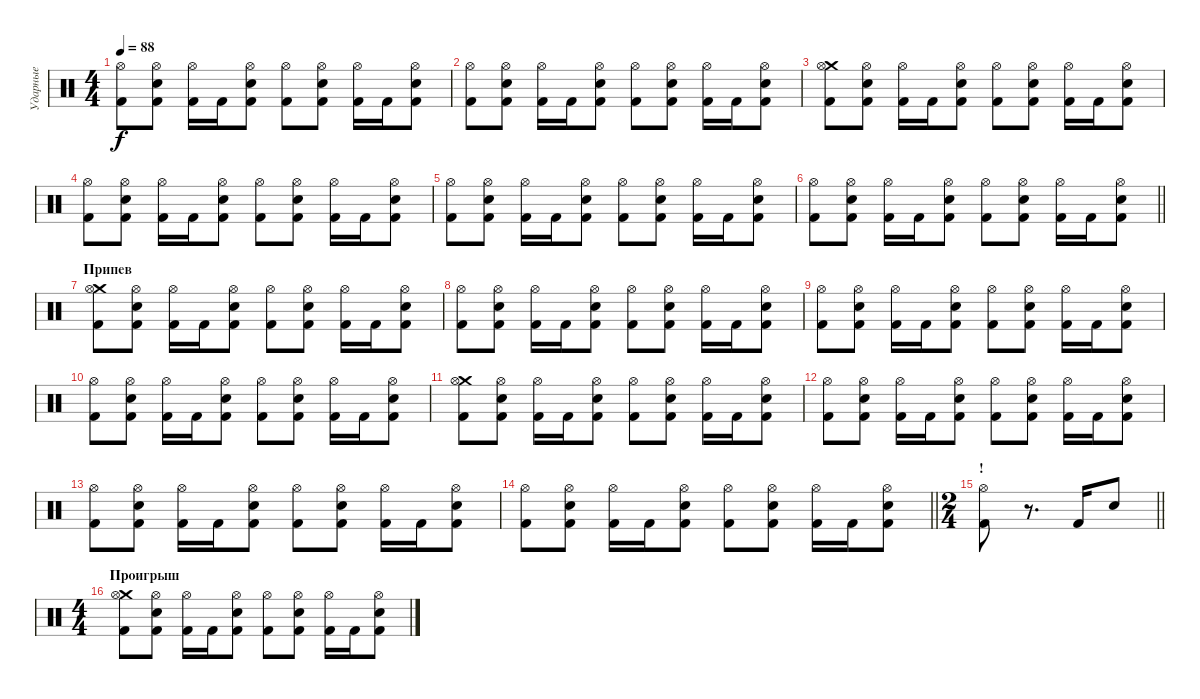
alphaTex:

\track ("Ударные" "Ударные") {instrument percussion}
\staff {score}
\articulation defaults
\ts (4 4)
\tempo 88
\clef neutral
\ks c
("Kick (hit) 2" "Hi-Hat (open)").8{dy f} ("Snare (hit) 2" "Kick (hit) 2" "Hi-Hat (open)").8 ("Kick (hit) 2" "Hi-Hat (open)").16 "Kick (hit) 2".16 ("Snare (hit) 2" "Kick (hit) 2" "Hi-Hat (open)").8 ("Kick (hit) 2" "Hi-Hat (open)").8 ("Snare (hit) 2" "Kick (hit) 2" "Hi-Hat (open)").8 ("Kick (hit) 2" "Hi-Hat (open)").16 "Kick (hit) 2".16 ("Snare (hit) 2" "Kick (hit) 2" "Hi-Hat (open)").8 |
("Kick (hit) 2" "Hi-Hat (open)").8 ("Snare (hit) 2" "Kick (hit) 2" "Hi-Hat (open)").8 ("Kick (hit) 2" "Hi-Hat (open)").16 "Kick (hit) 2".16 ("Snare (hit) 2" "Kick (hit) 2" "Hi-Hat (open)").8 ("Kick (hit) 2" "Hi-Hat (open)").8 ("Snare (hit) 2" "Kick (hit) 2" "Hi-Hat (open)").8 ("Kick (hit) 2" "Hi-Hat (open)").16 "Kick (hit) 2".16 ("Snare (hit) 2" "Kick (hit) 2" "Hi-Hat (open)").8 |
("Kick (hit) 2" "Crash medium (hit)" "Hi-Hat (open)").8 ("Snare (hit) 2" "Kick (hit) 2" "Hi-Hat (open)").8 ("Kick (hit) 2" "Hi-Hat (open)").16 "Kick (hit) 2".16 ("Snare (hit) 2" "Kick (hit) 2" "Hi-Hat (open)").8 ("Kick (hit) 2" "Hi-Hat (open)").8 ("Snare (hit) 2" "Kick (hit) 2" "Hi-Hat (open)").8 ("Kick (hit) 2" "Hi-Hat (open)").16 "Kick (hit) 2".16 ("Snare (hit) 2" "Kick (hit) 2" "Hi-Hat (open)").8 |
("Kick (hit) 2" "Hi-Hat (open)").8 ("Snare (hit) 2" "Kick (hit) 2" "Hi-Hat (open)").8 ("Kick (hit) 2" "Hi-Hat (open)").16 "Kick (hit) 2".16 ("Snare (hit) 2" "Kick (hit) 2" "Hi-Hat (open)").8 ("Kick (hit) 2" "Hi-Hat (open)").8 ("Snare (hit) 2" "Kick (hit) 2" "Hi-Hat (open)").8 ("Kick (hit) 2" "Hi-Hat (open)").16 "Kick (hit) 2".16 ("Snare (hit) 2" "Kick (hit) 2" "Hi-Hat (open)").8 |
("Kick (hit) 2" "Hi-Hat (open)").8 ("Snare (hit) 2" "Kick (hit) 2" "Hi-Hat (open)").8 ("Kick (hit) 2" "Hi-Hat (open)").16 "Kick (hit) 2".16 ("Snare (hit) 2" "Kick (hit) 2" "Hi-Hat (open)").8 ("Kick (hit) 2" "Hi-Hat (open)").8 ("Snare (hit) 2" "Kick (hit) 2" "Hi-Hat (open)").8 ("Kick (hit) 2" "Hi-Hat (open)").16 "Kick (hit) 2".16 ("Snare (hit) 2" "Kick (hit) 2" "Hi-Hat (open)").8 |
\barLineRight lightlight
("Kick (hit) 2" "Hi-Hat (open)").8 ("Snare (hit) 2" "Kick (hit) 2" "Hi-Hat (open)").8 ("Kick (hit) 2" "Hi-Hat (open)").16 "Kick (hit) 2".16 ("Snare (hit) 2" "Kick (hit) 2" "Hi-Hat (open)").8 ("Kick (hit) 2" "Hi-Hat (open)").8 ("Snare (hit) 2" "Kick (hit) 2" "Hi-Hat (open)").8 ("Kick (hit) 2" "Hi-Hat (open)").16 "Kick (hit) 2".16 ("Snare (hit) 2" "Kick (hit) 2" "Hi-Hat (open)").8 |
\section ("" "Припев")
("Kick (hit) 2" "Crash medium (hit)" "Hi-Hat (open)").8 ("Snare (hit) 2" "Kick (hit) 2" "Hi-Hat (open)").8 ("Kick (hit) 2" "Hi-Hat (open)").16 "Kick (hit) 2".16 ("Snare (hit) 2" "Kick (hit) 2" "Hi-Hat (open)").8 ("Kick (hit) 2" "Hi-Hat (open)").8 ("Snare (hit) 2" "Kick (hit) 2" "Hi-Hat (open)").8 ("Kick (hit) 2" "Hi-Hat (open)").16 "Kick (hit) 2".16 ("Snare (hit) 2" "Kick (hit) 2" "Hi-Hat (open)").8 |
("Kick (hit) 2" "Hi-Hat (open)").8 ("Snare (hit) 2" "Kick (hit) 2" "Hi-Hat (open)").8 ("Kick (hit) 2" "Hi-Hat (open)").16 "Kick (hit) 2".16 ("Snare (hit) 2" "Kick (hit) 2" "Hi-Hat (open)").8 ("Kick (hit) 2" "Hi-Hat (open)").8 ("Snare (hit) 2" "Kick (hit) 2" "Hi-Hat (open)").8 ("Kick (hit) 2" "Hi-Hat (open)").16 "Kick (hit) 2".16 ("Snare (hit) 2" "Kick (hit) 2" "Hi-Hat (open)").8 |
("Kick (hit) 2" "Hi-Hat (open)").8 ("Snare (hit) 2" "Kick (hit) 2" "Hi-Hat (open)").8 ("Kick (hit) 2" "Hi-Hat (open)").16 "Kick (hit) 2".16 ("Snare (hit) 2" "Kick (hit) 2" "Hi-Hat (open)").8 ("Kick (hit) 2" "Hi-Hat (open)").8 ("Snare (hit) 2" "Kick (hit) 2" "Hi-Hat (open)").8 ("Kick (hit) 2" "Hi-Hat (open)").16 "Kick (hit) 2".16 ("Snare (hit) 2" "Kick (hit) 2" "Hi-Hat (open)").8 |
("Kick (hit) 2" "Hi-Hat (open)").8 ("Snare (hit) 2" "Kick (hit) 2" "Hi-Hat (open)").8 ("Kick (hit) 2" "Hi-Hat (open)").16 "Kick (hit) 2".16 ("Snare (hit) 2" "Kick (hit) 2" "Hi-Hat (open)").8 ("Kick (hit) 2" "Hi-Hat (open)").8 ("Snare (hit) 2" "Kick (hit) 2" "Hi-Hat (open)").8 ("Kick (hit) 2" "Hi-Hat (open)").16 "Kick (hit) 2".16 ("Snare (hit) 2" "Kick (hit) 2" "Hi-Hat (open)").8 |
("Kick (hit) 2" "Crash medium (hit)" "Hi-Hat (open)").8 ("Snare (hit) 2" "Kick (hit) 2" "Hi-Hat (open)").8 ("Kick (hit) 2" "Hi-Hat (open)").16 "Kick (hit) 2".16 ("Snare (hit) 2" "Kick (hit) 2" "Hi-Hat (open)").8 ("Kick (hit) 2" "Hi-Hat (open)").8 ("Snare (hit) 2" "Kick (hit) 2" "Hi-Hat (open)").8 ("Kick (hit) 2" "Hi-Hat (open)").16 "Kick (hit) 2".16 ("Snare (hit) 2" "Kick (hit) 2" "Hi-Hat (open)").8 |
("Kick (hit) 2" "Hi-Hat (open)").8 ("Snare (hit) 2" "Kick (hit) 2" "Hi-Hat (open)").8 ("Kick (hit) 2" "Hi-Hat (open)").16 "Kick (hit) 2".16 ("Snare (hit) 2" "Kick (hit) 2" "Hi-Hat (open)").8 ("Kick (hit) 2" "Hi-Hat (open)").8 ("Snare (hit) 2" "Kick (hit) 2" "Hi-Hat (open)").8 ("Kick (hit) 2" "Hi-Hat (open)").16 "Kick (hit) 2".16 ("Snare (hit) 2" "Kick (hit) 2" "Hi-Hat (open)").8 |
("Kick (hit) 2" "Hi-Hat (open)").8 ("Snare (hit) 2" "Kick (hit) 2" "Hi-Hat (open)").8 ("Kick (hit) 2" "Hi-Hat (open)").16 "Kick (hit) 2".16 ("Snare (hit) 2" "Kick (hit) 2" "Hi-Hat (open)").8 ("Kick (hit) 2" "Hi-Hat (open)").8 ("Snare (hit) 2" "Kick (hit) 2" "Hi-Hat (open)").8 ("Kick (hit) 2" "Hi-Hat (open)").16 "Kick (hit) 2".16 ("Snare (hit) 2" "Kick (hit) 2" "Hi-Hat (open)").8 |
\barLineRight lightlight
("Kick (hit) 2" "Hi-Hat (open)").8 ("Snare (hit) 2" "Kick (hit) 2" "Hi-Hat (open)").8 ("Kick (hit) 2" "Hi-Hat (open)").16 "Kick (hit) 2".16 ("Snare (hit) 2" "Kick (hit) 2" "Hi-Hat (open)").8 ("Kick (hit) 2" "Hi-Hat (open)").8 ("Snare (hit) 2" "Kick (hit) 2" "Hi-Hat (open)").8 ("Kick (hit) 2" "Hi-Hat (open)").16 "Kick (hit) 2".16 ("Snare (hit) 2" "Kick (hit) 2" "Hi-Hat (open)").8 |
\ts (2 4)
\section ("" "!")
\barLineRight lightlight
("Kick (hit) 2" "Hi-Hat (open)").8 r.8{d} "Kick (hit) 2".16 "Snare (hit) 2".8 |
\ts (4 4)
\section ("" "Проигрыш")
("Kick (hit) 2" "Crash medium (hit)" "Hi-Hat (open)").8 ("Snare (hit) 2" "Kick (hit) 2" "Hi-Hat (open)").8 ("Kick (hit) 2" "Hi-Hat (open)").16 "Kick (hit) 2".16 ("Snare (hit) 2" "Kick (hit) 2" "Hi-Hat (open)").8 ("Kick (hit) 2" "Hi-Hat (open)").8 ("Snare (hit) 2" "Kick (hit) 2" "Hi-Hat (open)").8 ("Kick (hit) 2" "Hi-Hat (open)").16 "Kick (hit) 2".16 ("Snare (hit) 2" "Kick (hit) 2" "Hi-Hat (open)").8
